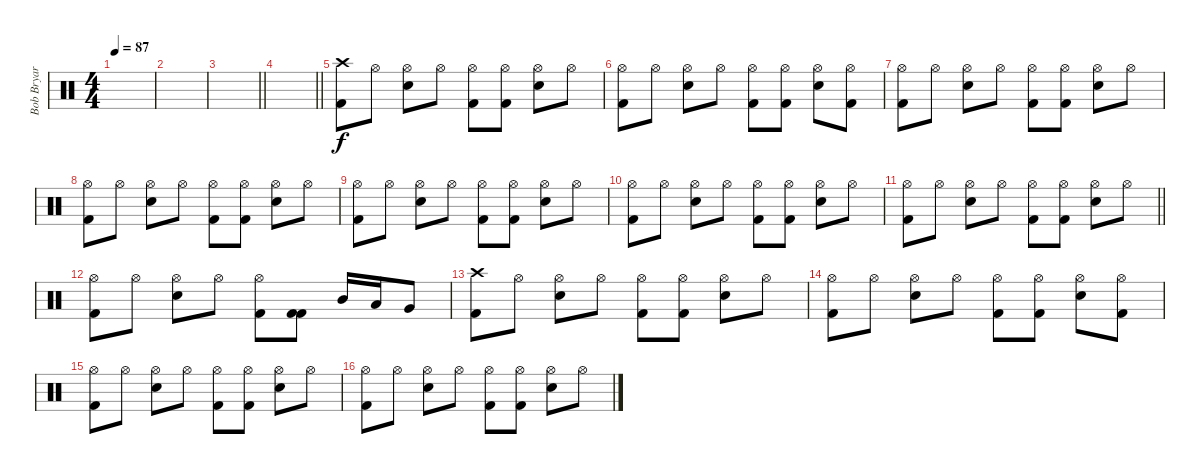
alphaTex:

\track ("Bob Bryar [Drums]" "Bob Bryar ") {instrument percussion}
\staff {score}
\articulation defaults
\ts (4 4)
\tempo 87
\clef neutral
\ks c
|
|
\barLineRight lightlight
|
\barLineRight lightlight
|
("Crash high (hit)" "Kick (hit) 2").8 "Hi-Hat (open)".8 ("Hi-Hat (open)" "Electric Snare (hit)").8 "Hi-Hat (open)".8 ("Hi-Hat (open)" "Kick (hit) 2").8 ("Hi-Hat (open)" "Kick (hit) 2").8 ("Hi-Hat (open)" "Electric Snare (hit)").8 "Hi-Hat (open)".8 |
("Hi-Hat (open)" "Kick (hit) 2").8 "Hi-Hat (open)".8 ("Hi-Hat (open)" "Electric Snare (hit)").8 "Hi-Hat (open)".8 ("Hi-Hat (open)" "Kick (hit) 2").8 ("Hi-Hat (open)" "Kick (hit) 2").8 ("Hi-Hat (open)" "Electric Snare (hit)").8 ("Hi-Hat (open)" "Kick (hit) 2").8 |
("Hi-Hat (open)" "Kick (hit) 2").8 "Hi-Hat (open)".8 ("Hi-Hat (open)" "Electric Snare (hit)").8 "Hi-Hat (open)".8 ("Hi-Hat (open)" "Kick (hit) 2").8 ("Hi-Hat (open)" "Kick (hit) 2").8 ("Hi-Hat (open)" "Electric Snare (hit)").8 "Hi-Hat (open)".8 |
("Hi-Hat (open)" "Kick (hit) 2").8 "Hi-Hat (open)".8 ("Hi-Hat (open)" "Electric Snare (hit)").8 "Hi-Hat (open)".8 ("Hi-Hat (open)" "Kick (hit) 2").8 ("Hi-Hat (open)" "Kick (hit) 2").8 ("Hi-Hat (open)" "Electric Snare (hit)").8 "Hi-Hat (open)".8 |
("Hi-Hat (open)" "Kick (hit) 2").8 "Hi-Hat (open)".8 ("Hi-Hat (open)" "Electric Snare (hit)").8 "Hi-Hat (open)".8 ("Hi-Hat (open)" "Kick (hit) 2").8 ("Hi-Hat (open)" "Kick (hit) 2").8 ("Hi-Hat (open)" "Electric Snare (hit)").8 "Hi-Hat (open)".8 |
("Hi-Hat (open)" "Kick (hit) 2").8 "Hi-Hat (open)".8 ("Hi-Hat (open)" "Electric Snare (hit)").8 "Hi-Hat (open)".8 ("Hi-Hat (open)" "Kick (hit) 2").8 ("Hi-Hat (open)" "Kick (hit) 2").8 ("Hi-Hat (open)" "Electric Snare (hit)").8 "Hi-Hat (open)".8 |
\barLineRight lightlight
("Hi-Hat (open)" "Kick (hit) 2").8 "Hi-Hat (open)".8 ("Hi-Hat (open)" "Electric Snare (hit)").8 "Hi-Hat (open)".8 ("Hi-Hat (open)" "Kick (hit) 2").8 ("Hi-Hat (open)" "Kick (hit) 2").8 ("Hi-Hat (open)" "Electric Snare (hit)").8 "Hi-Hat (open)".8 |
("Hi-Hat (open)" "Kick (hit) 2").8 "Hi-Hat (open)".8 ("Hi-Hat (open)" "Electric Snare (hit)").8 "Hi-Hat (open)".8 ("Hi-Hat (open)" "Kick (hit) 2").8 ("Kick (hit) 2" "Kick (hit) 2").8 "Mid Tom (hit)".16 "Low Tom (hit)".16 "Very Low Tom (hit)".8 |
("Crash high (hit)" "Kick (hit) 2").8 "Hi-Hat (open)".8 ("Hi-Hat (open)" "Electric Snare (hit)").8 "Hi-Hat (open)".8 ("Hi-Hat (open)" "Kick (hit) 2").8 ("Hi-Hat (open)" "Kick (hit) 2").8 ("Hi-Hat (open)" "Electric Snare (hit)").8 "Hi-Hat (open)".8 |
("Hi-Hat (open)" "Kick (hit) 2").8 "Hi-Hat (open)".8 ("Hi-Hat (open)" "Electric Snare (hit)").8 "Hi-Hat (open)".8 ("Hi-Hat (open)" "Kick (hit) 2").8 ("Hi-Hat (open)" "Kick (hit) 2").8 ("Hi-Hat (open)" "Electric Snare (hit)").8 ("Hi-Hat (open)" "Kick (hit) 2").8 |
("Hi-Hat (open)" "Kick (hit) 2").8 "Hi-Hat (open)".8 ("Hi-Hat (open)" "Electric Snare (hit)").8 "Hi-Hat (open)".8 ("Hi-Hat (open)" "Kick (hit) 2").8 ("Hi-Hat (open)" "Kick (hit) 2").8 ("Hi-Hat (open)" "Electric Snare (hit)").8 "Hi-Hat (open)".8 |
("Hi-Hat (open)" "Kick (hit) 2").8 "Hi-Hat (open)".8 ("Hi-Hat (open)" "Electric Snare (hit)").8 "Hi-Hat (open)".8 ("Hi-Hat (open)" "Kick (hit) 2").8 ("Hi-Hat (open)" "Kick (hit) 2").8 ("Hi-Hat (open)" "Electric Snare (hit)").8 "Hi-Hat (open)".8
